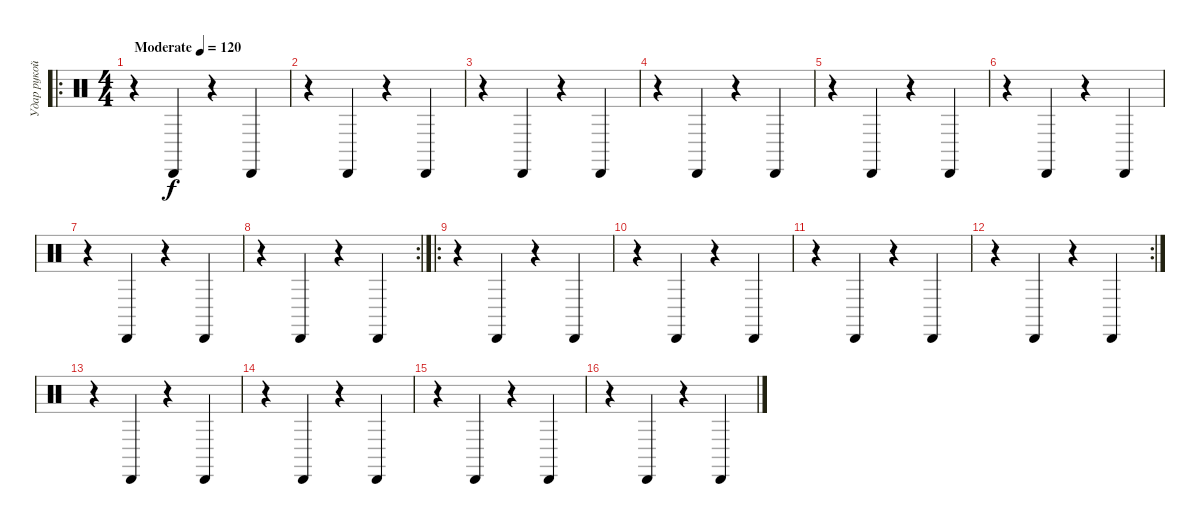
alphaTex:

\track ("Удар рукой по струнам" "Удар рукой") {instrument percussion}
\staff {score}
\articulation defaults
\ro
\ts (4 4)
\tempo (120 "Moderate")
\clef neutral
\ks c
r.4{dy f} "Cabasa (hit)".4 r.4 "Cabasa (hit)".4 |
r.4 "Cabasa (hit)".4 r.4 "Cabasa (hit)".4 |
r.4 "Cabasa (hit)".4 r.4 "Cabasa (hit)".4 |
r.4 "Cabasa (hit)".4 r.4 "Cabasa (hit)".4 |
r.4 "Cabasa (hit)".4 r.4 "Cabasa (hit)".4 |
r.4 "Cabasa (hit)".4 r.4 "Cabasa (hit)".4 |
r.4 "Cabasa (hit)".4 r.4 "Cabasa (hit)".4 |
\rc 2
r.4 "Cabasa (hit)".4 r.4 "Cabasa (hit)".4 |
\ro
r.4 "Cabasa (hit)".4 r.4 "Cabasa (hit)".4 |
r.4 "Cabasa (hit)".4 r.4 "Cabasa (hit)".4 |
r.4 "Cabasa (hit)".4 r.4 "Cabasa (hit)".4 |
\rc 2
r.4 "Cabasa (hit)".4 r.4 "Cabasa (hit)".4 |
r.4 "Cabasa (hit)".4 r.4 "Cabasa (hit)".4 |
r.4 "Cabasa (hit)".4 r.4 "Cabasa (hit)".4 |
r.4 "Cabasa (hit)".4 r.4 "Cabasa (hit)".4 |
r.4 "Cabasa (hit)".4 r.4 "Cabasa (hit)".4
